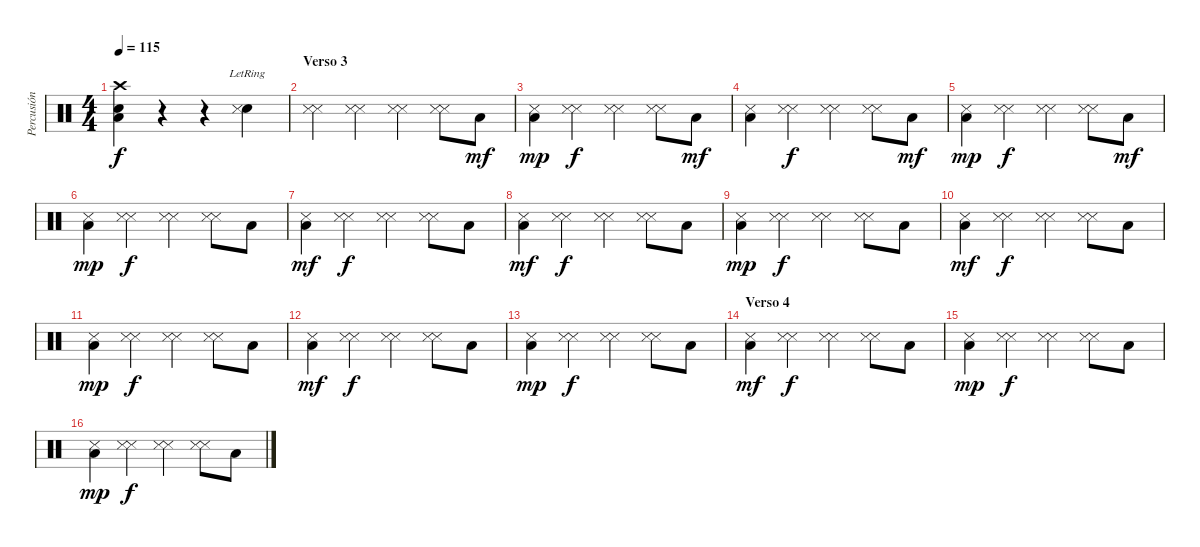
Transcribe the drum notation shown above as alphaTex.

\track ("Percusión" "Percusión") {instrument percussion}
\staff {score}
\articulation defaults
\ts (4 4)
\tempo 115
\clef neutral
\ks c
("Snare (hit) 2" "Low Floor Tom (hit)" "Crash high (hit)").4{dy f} r.4 r.4 ("Snare (hit) 2"{lr} "Snare (side stick) 3").4 |
\section ("" "Verso 3")
("Metronome (hit)" "Snare (side stick) 3").4 ("Metronome (hit)" "Snare (side stick) 3").4 ("Metronome (hit)" "Snare (side stick) 3").4 ("Metronome (hit)" "Snare (side stick) 3").8 "Low Floor Tom (hit)".8{dy mf} |
("Low Floor Tom (hit)" "Snare (side stick) 3").4{dy mp} ("Metronome (hit)" "Snare (side stick) 3").4{dy f} ("Metronome (hit)" "Snare (side stick) 3").4 ("Metronome (hit)" "Snare (side stick) 3").8 "Low Floor Tom (hit)".8{dy mf} |
("Low Floor Tom (hit)" "Snare (side stick) 3").4 ("Metronome (hit)" "Snare (side stick) 3").4{dy f} ("Metronome (hit)" "Snare (side stick) 3").4 ("Metronome (hit)" "Snare (side stick) 3").8 "Low Floor Tom (hit)".8{dy mf} |
("Low Floor Tom (hit)" "Snare (side stick) 3").4{dy mp} ("Metronome (hit)" "Snare (side stick) 3").4{dy f} ("Metronome (hit)" "Snare (side stick) 3").4 ("Metronome (hit)" "Snare (side stick) 3").8 "Low Floor Tom (hit)".8{dy mf} |
("Low Floor Tom (hit)" "Snare (side stick) 3").4{dy mp} ("Metronome (hit)" "Snare (side stick) 3").4{dy f} ("Metronome (hit)" "Snare (side stick) 3").4 ("Metronome (hit)" "Snare (side stick) 3").8 "Low Floor Tom (hit)".8 |
("Low Floor Tom (hit)" "Snare (side stick) 3").4{dy mf} ("Metronome (hit)" "Snare (side stick) 3").4{dy f} ("Metronome (hit)" "Snare (side stick) 3").4 ("Metronome (hit)" "Snare (side stick) 3").8 "Low Floor Tom (hit)".8 |
("Low Floor Tom (hit)" "Snare (side stick) 3").4{dy mf} ("Metronome (hit)" "Snare (side stick) 3").4{dy f} ("Metronome (hit)" "Snare (side stick) 3").4 ("Metronome (hit)" "Snare (side stick) 3").8 "Low Floor Tom (hit)".8 |
("Low Floor Tom (hit)" "Snare (side stick) 3").4{dy mp} ("Metronome (hit)" "Snare (side stick) 3").4{dy f} ("Metronome (hit)" "Snare (side stick) 3").4 ("Metronome (hit)" "Snare (side stick) 3").8 "Low Floor Tom (hit)".8 |
("Low Floor Tom (hit)" "Snare (side stick) 3").4{dy mf} ("Metronome (hit)" "Snare (side stick) 3").4{dy f} ("Metronome (hit)" "Snare (side stick) 3").4 ("Metronome (hit)" "Snare (side stick) 3").8 "Low Floor Tom (hit)".8 |
("Low Floor Tom (hit)" "Snare (side stick) 3").4{dy mp} ("Metronome (hit)" "Snare (side stick) 3").4{dy f} ("Metronome (hit)" "Snare (side stick) 3").4 ("Metronome (hit)" "Snare (side stick) 3").8 "Low Floor Tom (hit)".8 |
("Low Floor Tom (hit)" "Snare (side stick) 3").4{dy mf} ("Metronome (hit)" "Snare (side stick) 3").4{dy f} ("Metronome (hit)" "Snare (side stick) 3").4 ("Metronome (hit)" "Snare (side stick) 3").8 "Low Floor Tom (hit)".8 |
("Low Floor Tom (hit)" "Snare (side stick) 3").4{dy mp} ("Metronome (hit)" "Snare (side stick) 3").4{dy f} ("Metronome (hit)" "Snare (side stick) 3").4 ("Metronome (hit)" "Snare (side stick) 3").8 "Low Floor Tom (hit)".8 |
\section ("" "Verso 4")
("Low Floor Tom (hit)" "Snare (side stick) 3").4{dy mf} ("Metronome (hit)" "Snare (side stick) 3").4{dy f} ("Metronome (hit)" "Snare (side stick) 3").4 ("Metronome (hit)" "Snare (side stick) 3").8 "Low Floor Tom (hit)".8 |
("Low Floor Tom (hit)" "Snare (side stick) 3").4{dy mp} ("Metronome (hit)" "Snare (side stick) 3").4{dy f} ("Metronome (hit)" "Snare (side stick) 3").4 ("Metronome (hit)" "Snare (side stick) 3").8 "Low Floor Tom (hit)".8 |
("Low Floor Tom (hit)" "Snare (side stick) 3").4{dy mp} ("Metronome (hit)" "Snare (side stick) 3").4{dy f} ("Metronome (hit)" "Snare (side stick) 3").4 ("Metronome (hit)" "Snare (side stick) 3").8 "Low Floor Tom (hit)".8
